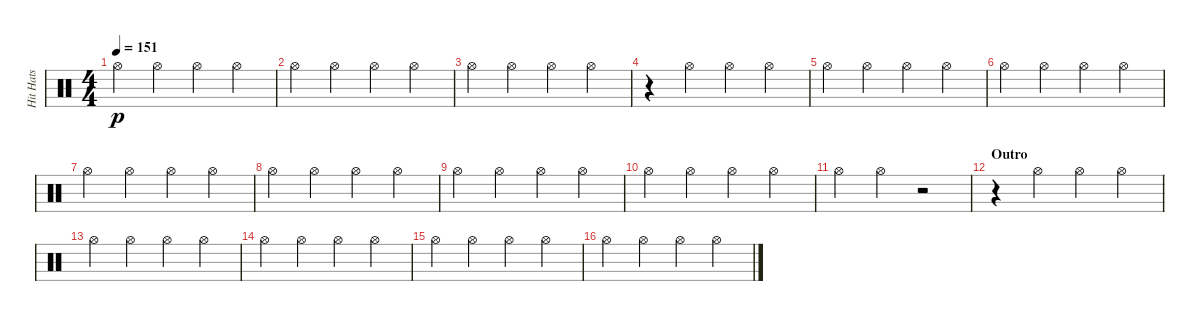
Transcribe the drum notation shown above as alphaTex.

\track ("Hit Hats" "Hit Hats") {instrument percussion}
\staff {score}
\articulation defaults
\ts (4 4)
\tempo 151
\clef neutral
\ks c "Hi-Hat (open)".4{dy p} "Hi-Hat (open)".4 "Hi-Hat (open)".4 "Hi-Hat (open)".4
|
"Hi-Hat (open)".4 "Hi-Hat (open)".4 "Hi-Hat (open)".4 "Hi-Hat (open)".4 |
"Hi-Hat (open)".4 "Hi-Hat (open)".4 "Hi-Hat (open)".4 "Hi-Hat (open)".4 |
r.4 "Hi-Hat (open)".4 "Hi-Hat (open)".4 "Hi-Hat (open)".4 |
"Hi-Hat (open)".4 "Hi-Hat (open)".4 "Hi-Hat (open)".4 "Hi-Hat (open)".4 |
"Hi-Hat (open)".4 "Hi-Hat (open)".4 "Hi-Hat (open)".4 "Hi-Hat (open)".4 |
"Hi-Hat (open)".4 "Hi-Hat (open)".4 "Hi-Hat (open)".4 "Hi-Hat (open)".4 |
"Hi-Hat (open)".4 "Hi-Hat (open)".4 "Hi-Hat (open)".4 "Hi-Hat (open)".4 |
"Hi-Hat (open)".4 "Hi-Hat (open)".4 "Hi-Hat (open)".4 "Hi-Hat (open)".4 |
"Hi-Hat (open)".4 "Hi-Hat (open)".4 "Hi-Hat (open)".4 "Hi-Hat (open)".4 |
"Hi-Hat (open)".4 "Hi-Hat (open)".4 r.2 |
\section ("" "Outro")
r.4 "Hi-Hat (open)".4 "Hi-Hat (open)".4 "Hi-Hat (open)".4 |
"Hi-Hat (open)".4 "Hi-Hat (open)".4 "Hi-Hat (open)".4 "Hi-Hat (open)".4 |
"Hi-Hat (open)".4 "Hi-Hat (open)".4 "Hi-Hat (open)".4 "Hi-Hat (open)".4 |
"Hi-Hat (open)".4 "Hi-Hat (open)".4 "Hi-Hat (open)".4 "Hi-Hat (open)".4 |
"Hi-Hat (open)".4 "Hi-Hat (open)".4 "Hi-Hat (open)".4 "Hi-Hat (open)".4
